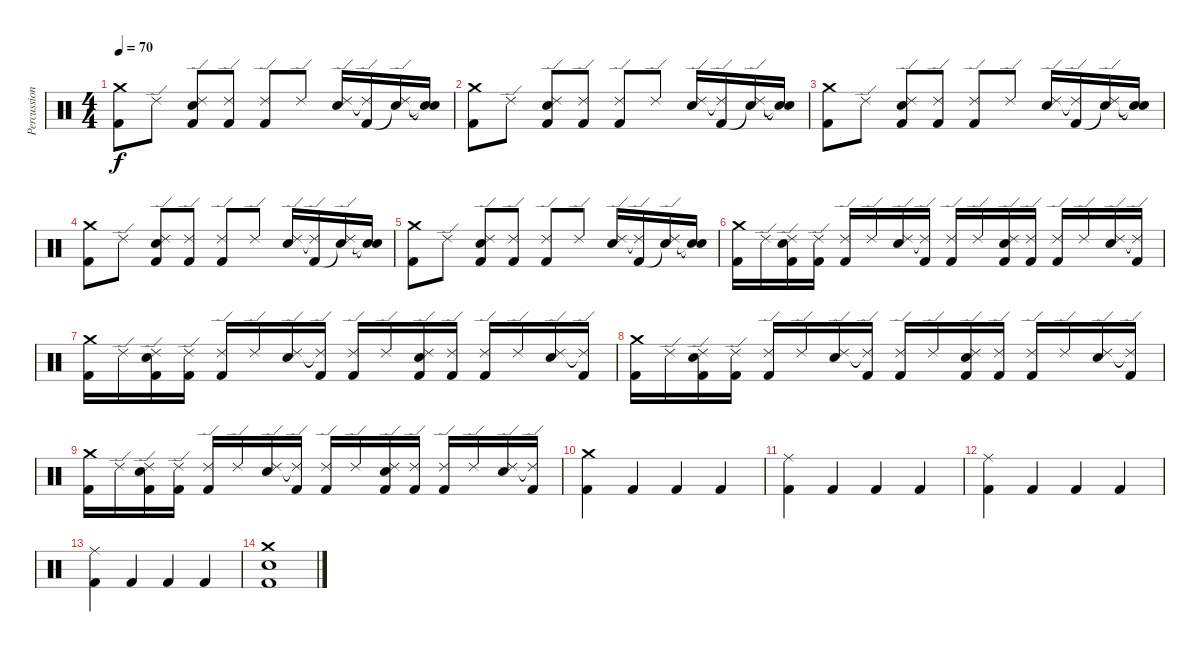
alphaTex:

\track ("Percussion" "Percussion") {instrument percussion}
\staff {score}
\articulation defaults
\ts (4 4)
\tempo 70
\clef neutral
\ks c
("Crash medium (hit)" "Kick (hit) 2").8{dy f} "Ride (edge) 2".8 ("Ride (edge) 2" "Electric Snare (hit)" "Kick (hit) 2").8 ("Ride (edge) 2" "Kick (hit) 2").8 ("Ride (edge) 2" "Kick (hit) 2").8 "Ride (edge) 2".8 ("Ride (edge) 2" "Electric Snare (hit)").16 ("Ride (edge) 2"{t} "Kick (hit) 2").16 ("Ride (edge) 2" "Snare (hit)"{t}).16 ("Snare (hit)"{t} "Snare (hit)"{t}).16 |
("Crash medium (hit)" "Kick (hit) 2").8 "Ride (edge) 2".8 ("Ride (edge) 2" "Electric Snare (hit)" "Kick (hit) 2").8 ("Ride (edge) 2" "Kick (hit) 2").8 ("Ride (edge) 2" "Kick (hit) 2").8 "Ride (edge) 2".8 ("Ride (edge) 2" "Electric Snare (hit)").16 ("Ride (edge) 2"{t} "Kick (hit) 2").16 ("Ride (edge) 2" "Snare (hit)"{t}).16 ("Snare (hit)"{t} "Snare (hit)"{t}).16 |
("Crash medium (hit)" "Kick (hit) 2").8 "Ride (edge) 2".8 ("Ride (edge) 2" "Electric Snare (hit)" "Kick (hit) 2").8 ("Ride (edge) 2" "Kick (hit) 2").8 ("Ride (edge) 2" "Kick (hit) 2").8 "Ride (edge) 2".8 ("Ride (edge) 2" "Electric Snare (hit)").16 ("Ride (edge) 2"{t} "Kick (hit) 2").16 ("Ride (edge) 2" "Snare (hit)"{t}).16 ("Snare (hit)"{t} "Snare (hit)"{t}).16 |
("Crash medium (hit)" "Kick (hit) 2").8 "Ride (edge) 2".8 ("Ride (edge) 2" "Electric Snare (hit)" "Kick (hit) 2").8 ("Ride (edge) 2" "Kick (hit) 2").8 ("Ride (edge) 2" "Kick (hit) 2").8 "Ride (edge) 2".8 ("Ride (edge) 2" "Electric Snare (hit)").16 ("Ride (edge) 2"{t} "Kick (hit) 2").16 ("Ride (edge) 2" "Snare (hit)"{t}).16 ("Snare (hit)"{t} "Snare (hit)"{t}).16 |
("Crash medium (hit)" "Kick (hit) 2").8 "Ride (edge) 2".8 ("Ride (edge) 2" "Electric Snare (hit)" "Kick (hit) 2").8 ("Ride (edge) 2" "Kick (hit) 2").8 ("Ride (edge) 2" "Kick (hit) 2").8 "Ride (edge) 2".8 ("Ride (edge) 2" "Electric Snare (hit)").16 ("Ride (edge) 2"{t} "Kick (hit) 2").16 ("Ride (edge) 2" "Snare (hit)"{t}).16 ("Snare (hit)"{t} "Snare (hit)"{t}).16 |
("Crash medium (hit)" "Kick (hit) 2").16 "Ride (edge) 2".16 ("Ride (edge) 2" "Electric Snare (hit)" "Kick (hit) 2").16 ("Ride (edge) 2" "Kick (hit) 2").16 ("Ride (edge) 2" "Kick (hit) 2").16 "Ride (edge) 2".16 ("Ride (edge) 2" "Electric Snare (hit)").16 ("Ride (edge) 2"{t} "Kick (hit) 2").16 ("Ride (edge) 2" "Kick (hit) 2").16 "Ride (edge) 2".16 ("Ride (edge) 2" "Electric Snare (hit)" "Kick (hit) 2").16 ("Ride (edge) 2" "Kick (hit) 2").16 ("Ride (edge) 2" "Kick (hit) 2").16 "Ride (edge) 2".16 ("Ride (edge) 2" "Electric Snare (hit)").16 ("Ride (edge) 2"{t} "Kick (hit) 2").16 |
("Crash medium (hit)" "Kick (hit) 2").16 "Ride (edge) 2".16 ("Ride (edge) 2" "Electric Snare (hit)" "Kick (hit) 2").16 ("Ride (edge) 2" "Kick (hit) 2").16 ("Ride (edge) 2" "Kick (hit) 2").16 "Ride (edge) 2".16 ("Ride (edge) 2" "Electric Snare (hit)").16 ("Ride (edge) 2"{t} "Kick (hit) 2").16 ("Ride (edge) 2" "Kick (hit) 2").16 "Ride (edge) 2".16 ("Ride (edge) 2" "Electric Snare (hit)" "Kick (hit) 2").16 ("Ride (edge) 2" "Kick (hit) 2").16 ("Ride (edge) 2" "Kick (hit) 2").16 "Ride (edge) 2".16 ("Ride (edge) 2" "Electric Snare (hit)").16 ("Ride (edge) 2"{t} "Kick (hit) 2").16 |
("Crash medium (hit)" "Kick (hit) 2").16 "Ride (edge) 2".16 ("Ride (edge) 2" "Electric Snare (hit)" "Kick (hit) 2").16 ("Ride (edge) 2" "Kick (hit) 2").16 ("Ride (edge) 2" "Kick (hit) 2").16 "Ride (edge) 2".16 ("Ride (edge) 2" "Electric Snare (hit)").16 ("Ride (edge) 2"{t} "Kick (hit) 2").16 ("Ride (edge) 2" "Kick (hit) 2").16 "Ride (edge) 2".16 ("Ride (edge) 2" "Electric Snare (hit)" "Kick (hit) 2").16 ("Ride (edge) 2" "Kick (hit) 2").16 ("Ride (edge) 2" "Kick (hit) 2").16 "Ride (edge) 2".16 ("Ride (edge) 2" "Electric Snare (hit)").16 ("Ride (edge) 2"{t} "Kick (hit) 2").16 |
("Crash medium (hit)" "Kick (hit) 2").16 "Ride (edge) 2".16 ("Ride (edge) 2" "Electric Snare (hit)" "Kick (hit) 2").16 ("Ride (edge) 2" "Kick (hit) 2").16 ("Ride (edge) 2" "Kick (hit) 2").16 "Ride (edge) 2".16 ("Ride (edge) 2" "Electric Snare (hit)").16 ("Ride (edge) 2"{t} "Kick (hit) 2").16 ("Ride (edge) 2" "Kick (hit) 2").16 "Ride (edge) 2".16 ("Ride (edge) 2" "Electric Snare (hit)" "Kick (hit) 2").16 ("Ride (edge) 2" "Kick (hit) 2").16 ("Ride (edge) 2" "Kick (hit) 2").16 "Ride (edge) 2".16 ("Ride (edge) 2" "Electric Snare (hit)").16 ("Ride (edge) 2"{t} "Kick (hit) 2").16 |
("Crash medium (hit)" "Kick (hit) 2").4 "Kick (hit) 2".4 "Kick (hit) 2".4 "Kick (hit) 2".4 |
("Ride (middle)" "Kick (hit) 2").4 "Kick (hit) 2".4 "Kick (hit) 2".4 "Kick (hit) 2".4 |
("Ride (middle)" "Kick (hit) 2").4 "Kick (hit) 2".4 "Kick (hit) 2".4 "Kick (hit) 2".4 |
("Ride (middle)" "Kick (hit) 2").4 "Kick (hit) 2".4 "Kick (hit) 2".4 "Kick (hit) 2".4 |
("Crash medium (hit)" "Electric Snare (hit)" "Kick (hit) 2").1
